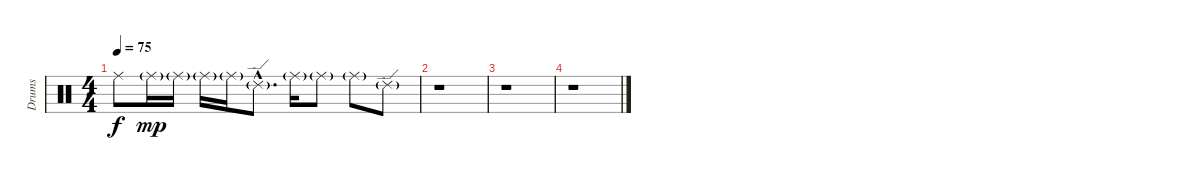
\track ("Drums" "Drums") {instrument percussion}
\staff {score}
\articulation defaults
\ts (4 4)
\tempo 75
\clef neutral
\ks c "Ride (middle)".8{dy f} "Ride (middle)"{g}.16{dy mp} "Ride (middle)"{g}.16 "Ride (middle)"{g}.16 "Ride (middle)"{g}.16 "Ride (edge) 2"{g hac}.8{d} "Ride (middle)"{g}.16 "Ride (middle)"{g}.8 "Ride (middle)"{g}.8 "Ride (edge) 2"{g}.8
|
r.1 |
r.1 |
r.1
